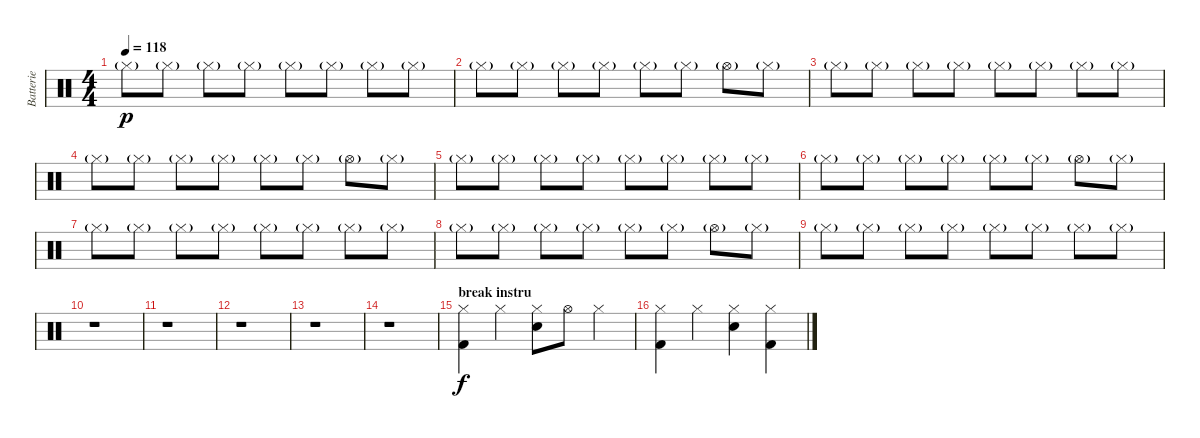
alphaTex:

\track ("Batterie" "Batterie") {instrument percussion}
\staff {score}
\articulation defaults
\ts (4 4)
\tempo 118
\clef neutral
\ks c "Hi-Hat (closed)"{g}.8{dy p} "Hi-Hat (closed)"{g}.8 "Hi-Hat (closed)"{g}.8 "Hi-Hat (closed)"{g}.8 "Hi-Hat (closed)"{g}.8 "Hi-Hat (closed)"{g}.8 "Hi-Hat (closed)"{g}.8 "Hi-Hat (closed)"{g}.8
|
"Hi-Hat (closed)"{g}.8 "Hi-Hat (closed)"{g}.8 "Hi-Hat (closed)"{g}.8 "Hi-Hat (closed)"{g}.8 "Hi-Hat (closed)"{g}.8 "Hi-Hat (closed)"{g}.8 "Hi-Hat (open)"{g}.8 "Hi-Hat (closed)"{g}.8 |
"Hi-Hat (closed)"{g}.8 "Hi-Hat (closed)"{g}.8 "Hi-Hat (closed)"{g}.8 "Hi-Hat (closed)"{g}.8 "Hi-Hat (closed)"{g}.8 "Hi-Hat (closed)"{g}.8 "Hi-Hat (closed)"{g}.8 "Hi-Hat (closed)"{g}.8 |
"Hi-Hat (closed)"{g}.8 "Hi-Hat (closed)"{g}.8 "Hi-Hat (closed)"{g}.8 "Hi-Hat (closed)"{g}.8 "Hi-Hat (closed)"{g}.8 "Hi-Hat (closed)"{g}.8 "Hi-Hat (open)"{g}.8 "Hi-Hat (closed)"{g}.8 |
"Hi-Hat (closed)"{g}.8 "Hi-Hat (closed)"{g}.8 "Hi-Hat (closed)"{g}.8 "Hi-Hat (closed)"{g}.8 "Hi-Hat (closed)"{g}.8 "Hi-Hat (closed)"{g}.8 "Hi-Hat (closed)"{g}.8 "Hi-Hat (closed)"{g}.8 |
"Hi-Hat (closed)"{g}.8 "Hi-Hat (closed)"{g}.8 "Hi-Hat (closed)"{g}.8 "Hi-Hat (closed)"{g}.8 "Hi-Hat (closed)"{g}.8 "Hi-Hat (closed)"{g}.8 "Hi-Hat (open)"{g}.8 "Hi-Hat (closed)"{g}.8 |
"Hi-Hat (closed)"{g}.8 "Hi-Hat (closed)"{g}.8 "Hi-Hat (closed)"{g}.8 "Hi-Hat (closed)"{g}.8 "Hi-Hat (closed)"{g}.8 "Hi-Hat (closed)"{g}.8 "Hi-Hat (closed)"{g}.8 "Hi-Hat (closed)"{g}.8 |
"Hi-Hat (closed)"{g}.8 "Hi-Hat (closed)"{g}.8 "Hi-Hat (closed)"{g}.8 "Hi-Hat (closed)"{g}.8 "Hi-Hat (closed)"{g}.8 "Hi-Hat (closed)"{g}.8 "Hi-Hat (open)"{g}.8 "Hi-Hat (closed)"{g}.8 |
"Hi-Hat (closed)"{g}.8 "Hi-Hat (closed)"{g}.8 "Hi-Hat (closed)"{g}.8 "Hi-Hat (closed)"{g}.8 "Hi-Hat (closed)"{g}.8 "Hi-Hat (closed)"{g}.8 "Hi-Hat (closed)"{g}.8 "Hi-Hat (closed)"{g}.8 |
r.1 |
r.1 |
r.1 |
r.1 |
r.1 |
\section ("" "break instru")
("Hi-Hat (closed)" "Kick (hit) 2").4{dy f} "Hi-Hat (closed)".4 ("Hi-Hat (closed)" "Electric Snare (hit)").8 "Hi-Hat (open)".8 "Hi-Hat (closed)".4 |
("Hi-Hat (closed)" "Kick (hit) 2").4 "Hi-Hat (closed)".4 ("Hi-Hat (closed)" "Electric Snare (hit)").4 ("Hi-Hat (closed)" "Kick (hit) 2").4
